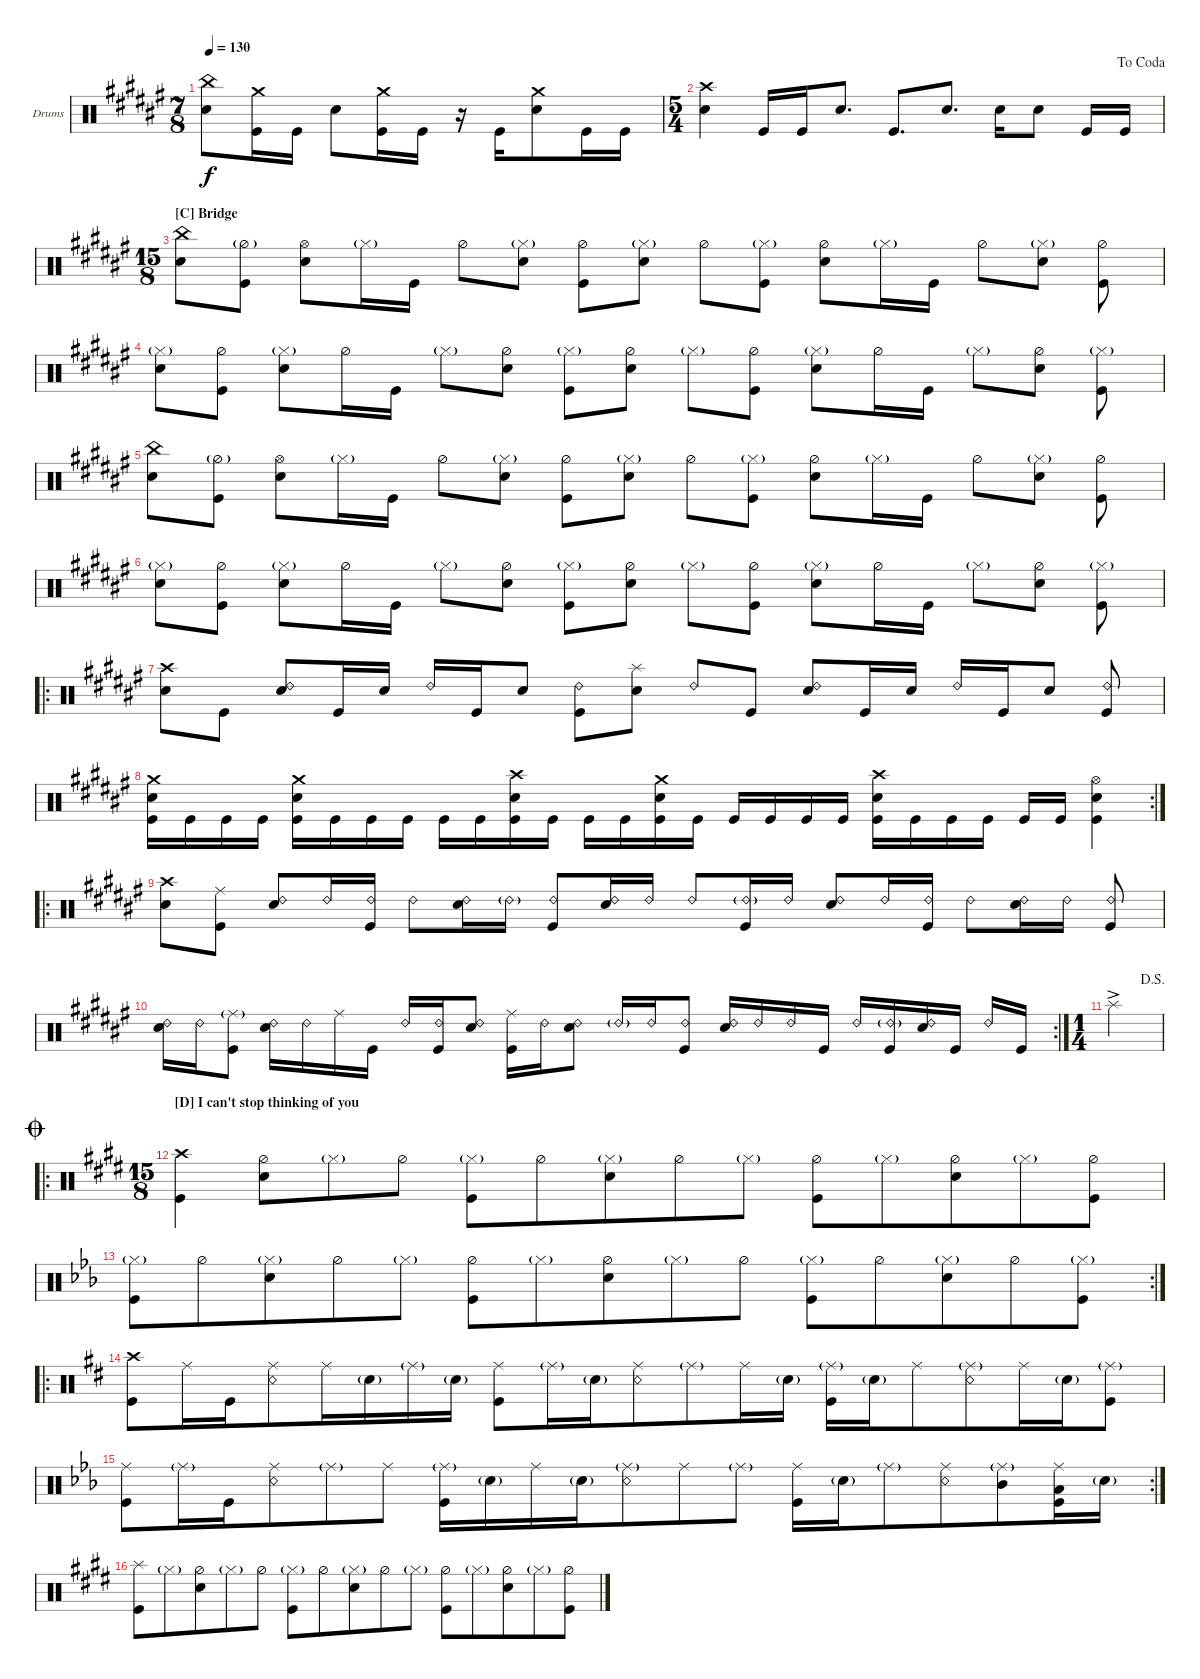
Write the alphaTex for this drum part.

\bracketExtendMode groupsimilarinstruments
\firstSystemTrackNameOrientation horizontal
\otherSystemsTrackNameOrientation horizontal
\track ("Drumkit" "Drums") {multiBarRest instrument percussion}
\staff {score}
\articulation defaults
\ts (7 8)
\beaming (8 2 2 3)
\tempo 130
\clef neutral
\ks d#minor
("Snare (hit) 2" "China (hit)").8{dy f} ("Kick (hit)" "Crash medium (hit)").16 "Kick (hit)".16 "Snare (hit) 2".8 ("Kick (hit)" "Crash medium (hit)").16 "Kick (hit)".16 r.16 "Kick (hit)".16 ("Snare (hit) 2" "Crash medium (hit)").8 "Kick (hit)".16 "Kick (hit)".16 |
\ts (5 4)
\jump dacoda
("Snare (hit) 2" "Crash high (hit)").4 "Kick (hit)".16 "Kick (hit)".16 "Snare (hit) 2".8{d} "Kick (hit)".8{d} "Snare (hit) 2".8{d} "Snare (hit) 2".16 "Snare (hit) 2".8 "Kick (hit)".16 "Kick (hit)".16 |
\ts (15 8)
\beaming (8 2 2 2 2 2 2 2 1)
\section ("C" "Bridge")
("China (hit)" "Snare (hit) 2").8 ("Kick (hit)" "Hi-Hat (half)"{g}).8 ("Snare (hit) 2" "Hi-Hat (open)").8 "Hi-Hat (closed)"{g}.16 "Kick (hit)".16 "Hi-Hat (half)".8 ("Snare (hit) 2" "Hi-Hat (closed)"{g}).8 ("Kick (hit)" "Hi-Hat (half)").8 ("Snare (hit) 2" "Hi-Hat (closed)"{g}).8 "Hi-Hat (half)".8 ("Kick (hit)" "Hi-Hat (closed)"{g}).8 ("Snare (hit) 2" "Hi-Hat (half)").8 "Hi-Hat (closed)"{g}.16 "Kick (hit)".16 "Hi-Hat (half)".8 ("Snare (hit) 2" "Hi-Hat (closed)"{g}).8 ("Kick (hit)" "Hi-Hat (half)").8 |
("Snare (hit) 2" "Hi-Hat (closed)"{g}).8 ("Kick (hit)" "Hi-Hat (half)").8 ("Snare (hit) 2" "Hi-Hat (closed)"{g}).8 "Hi-Hat (half)".16 "Kick (hit)".16 "Hi-Hat (closed)"{g}.8 ("Snare (hit) 2" "Hi-Hat (half)").8 ("Kick (hit)" "Hi-Hat (closed)"{g}).8 ("Snare (hit) 2" "Hi-Hat (half)").8 "Hi-Hat (closed)"{g}.8 ("Kick (hit)" "Hi-Hat (half)").8 ("Snare (hit) 2" "Hi-Hat (closed)"{g}).8 "Hi-Hat (half)".16 "Kick (hit)".16 "Hi-Hat (closed)"{g}.8 ("Snare (hit) 2" "Hi-Hat (half)").8 ("Kick (hit)" "Hi-Hat (closed)"{g}).8 |
("China (hit)" "Snare (hit) 2").8 ("Kick (hit)" "Hi-Hat (half)"{g}).8 ("Snare (hit) 2" "Hi-Hat (open)").8 "Hi-Hat (closed)"{g}.16 "Kick (hit)".16 "Hi-Hat (half)".8 ("Snare (hit) 2" "Hi-Hat (closed)"{g}).8 ("Kick (hit)" "Hi-Hat (half)").8 ("Snare (hit) 2" "Hi-Hat (closed)"{g}).8 "Hi-Hat (half)".8 ("Kick (hit)" "Hi-Hat (closed)"{g}).8 ("Snare (hit) 2" "Hi-Hat (half)").8 "Hi-Hat (closed)"{g}.16 "Kick (hit)".16 "Hi-Hat (half)".8 ("Snare (hit) 2" "Hi-Hat (closed)"{g}).8 ("Kick (hit)" "Hi-Hat (half)").8 |
("Snare (hit) 2" "Hi-Hat (closed)"{g}).8 ("Kick (hit)" "Hi-Hat (half)").8 ("Snare (hit) 2" "Hi-Hat (closed)"{g}).8 "Hi-Hat (half)".16 "Kick (hit)".16 "Hi-Hat (closed)"{g}.8 ("Snare (hit) 2" "Hi-Hat (half)").8 ("Kick (hit)" "Hi-Hat (closed)"{g}).8 ("Snare (hit) 2" "Hi-Hat (half)").8 "Hi-Hat (closed)"{g}.8 ("Kick (hit)" "Hi-Hat (half)").8 ("Snare (hit) 2" "Hi-Hat (closed)"{g}).8 "Hi-Hat (half)".16 "Kick (hit)".16 "Hi-Hat (closed)"{g}.8 ("Snare (hit) 2" "Hi-Hat (half)").8 ("Kick (hit)" "Hi-Hat (closed)"{g}).8 |
\ro
("Snare (hit) 2" "Crash high (hit)").8 "Kick (hit)".8 ("Snare (hit) 2" "Ride (bell) 2").8 "Kick (hit)".16 "Snare (hit) 2".16 "Ride (bell) 2".16 "Kick (hit)".16 "Snare (hit) 2".8 ("Kick (hit)" "Ride (bell) 2").8 ("Snare (hit) 2" "Splash (hit)").8 "Ride (bell) 2".8 "Kick (hit)".8 ("Snare (hit) 2" "Ride (bell) 2").8 "Kick (hit)".16 "Snare (hit) 2".16 "Ride (bell) 2".16 "Kick (hit)".16 "Snare (hit) 2".8 ("Kick (hit)" "Ride (bell) 2").8 |
\rc 2
("Kick (hit)" "Snare (hit) 2" "Crash medium (hit)").16 "Kick (hit)".16 "Kick (hit)".16 "Kick (hit)".16 ("Kick (hit)" "Snare (hit) 2" "Crash medium (hit)").16 "Kick (hit)".16 "Kick (hit)".16 "Kick (hit)".16 "Kick (hit)".16 "Kick (hit)".16 ("Kick (hit)" "Snare (hit) 2" "Crash high (hit)").16 "Kick (hit)".16 "Kick (hit)".16 "Kick (hit)".16 ("Kick (hit)" "Snare (hit) 2" "Crash medium (hit)").16 "Kick (hit)".16 "Kick (hit)".16 "Kick (hit)".16 "Kick (hit)".16 "Kick (hit)".16 ("Kick (hit)" "Snare (hit) 2" "Crash high (hit)").16 "Kick (hit)".16 "Kick (hit)".16 "Kick (hit)".16 "Kick (hit)".16 "Kick (hit)".16 ("Kick (hit)" "Snare (hit) 2" "Hi-Hat (open)").4 |
\ro
("Crash high (hit)" "Snare (hit) 2").8 ("Ride (middle)" "Kick (hit)").8 ("Ride (bell) 2" "Snare (hit) 2").8 "Ride (bell) 2".16 ("Ride (bell) 2" "Kick (hit)").16 "Ride (bell) 2".8 ("Ride (bell) 2" "Snare (hit) 2").16 "Ride (bell) 2"{g}.16 ("Ride (bell) 2" "Kick (hit)").8 ("Ride (bell) 2" "Snare (hit) 2").16 "Ride (bell) 2".16 "Ride (bell) 2".8 ("Ride (bell) 2"{g} "Kick (hit)").16 "Ride (bell) 2".16 ("Ride (bell) 2" "Snare (hit) 2").8 "Ride (bell) 2".16 ("Ride (bell) 2" "Kick (hit)").16 "Ride (bell) 2".8 ("Ride (bell) 2" "Snare (hit) 2").16 "Ride (bell) 2".16 ("Ride (bell) 2" "Kick (hit)").8 |
\rc 2
("Ride (bell) 2" "Snare (hit) 2").16 "Ride (bell) 2".16 ("Ride (middle)"{g} "Kick (hit)").8 ("Ride (bell) 2" "Snare (hit) 2").16 "Ride (bell) 2".16 "Ride (middle)".16 "Kick (hit)".16 "Ride (bell) 2".16 ("Ride (bell) 2" "Kick (hit)").16 ("Ride (bell) 2" "Snare (hit) 2").8 ("Ride (middle)" "Kick (hit)").16 "Ride (bell) 2".16 ("Ride (bell) 2" "Snare (hit) 2").8 "Ride (bell) 2"{g}.16 "Ride (bell) 2".16 ("Ride (bell) 2" "Kick (hit)").8 ("Ride (bell) 2" "Snare (hit) 2").16 "Ride (bell) 2".16 "Ride (bell) 2".16 "Kick (hit)".16 "Ride (bell) 2".16 ("Ride (bell) 2"{g} "Kick (hit)").16 ("Ride (bell) 2" "Snare (hit) 2").16 "Kick (hit)".16 "Ride (bell) 2".16 "Kick (hit)".16 |
\ts (1 4)
\jump dalsegno "Splash (hit)"{ac}.4
|
\ro
\ts (15 8)
\beaming (8 5 5 5)
\section ("D" "I can't stop thinking of you")
\jump coda
\ks e
("Crash high (hit)" "Kick (hit)").4 ("Hi-Hat (half)" "Snare (hit) 2").8 "Hi-Hat (closed)"{g}.8 "Hi-Hat (half)".8 ("Hi-Hat (closed)"{g} "Kick (hit)").8 "Hi-Hat (half)".8 ("Hi-Hat (closed)"{g} "Snare (hit) 2").8 "Hi-Hat (half)".8 "Hi-Hat (closed)"{g}.8 ("Hi-Hat (half)" "Kick (hit)").8 "Hi-Hat (closed)"{g}.8 ("Hi-Hat (half)" "Snare (hit) 2").8 "Hi-Hat (closed)"{g}.8 ("Hi-Hat (half)" "Kick (hit)").8 |
\rc 2
\ks eb
("Hi-Hat (closed)"{g} "Kick (hit)").8 "Hi-Hat (half)".8 ("Hi-Hat (closed)"{g} "Snare (hit) 2").8 "Hi-Hat (half)".8 "Hi-Hat (closed)"{g}.8 ("Hi-Hat (half)" "Kick (hit)").8 "Hi-Hat (closed)"{g}.8 ("Hi-Hat (half)" "Snare (hit) 2").8 "Hi-Hat (closed)"{g}.8 "Hi-Hat (half)".8 ("Hi-Hat (closed)"{g} "Kick (hit)").8 "Hi-Hat (half)".8 ("Hi-Hat (closed)"{g} "Snare (hit) 2").8 "Hi-Hat (half)".8 ("Hi-Hat (closed)"{g} "Kick (hit)").8 |
\ro
\ks bminor
("Crash high (hit)" "Kick (hit)").8 "Ride (middle)".16 "Kick (hit)".16 ("Ride (middle)" "Snare (rim shot)").8 "Ride (middle)".16 "Snare (hit) 2"{g}.16 "Ride (middle)"{g}.16 "Snare (hit) 2"{g}.16 ("Ride (middle)" "Kick (hit)").8 "Ride (middle)"{g}.16 "Snare (hit) 2"{g}.16 ("Ride (middle)" "Snare (rim shot)").8 "Ride (middle)"{g}.8 "Ride (middle)".16 "Snare (hit) 2"{g}.16 ("Ride (middle)"{g} "Kick (hit)").16 "Snare (hit) 2"{g}.16 "Ride (middle)".8 ("Ride (middle)"{g} "Snare (rim shot)").8 "Ride (middle)".16 "Snare (hit) 2"{g}.16 ("Ride (middle)"{g} "Kick (hit)").8 |
\rc 2
\ks eb
("Kick (hit)" "Ride (middle)").8 "Ride (middle)"{g}.16 "Kick (hit)".16 ("Ride (middle)" "Snare (rim shot)").8 "Ride (middle)"{g}.8 "Ride (middle)".8 ("Ride (middle)"{g} "Kick (hit)").16 "Snare (hit) 2"{g}.16 "Ride (middle)".16 "Snare (hit) 2"{g}.16 ("Ride (middle)"{g} "Snare (rim shot)").8 "Ride (middle)".8 "Ride (middle)"{g}.8 ("Ride (middle)" "Kick (hit)").16 "Snare (hit) 2"{g}.16 "Ride (middle)"{g}.8 ("Ride (middle)" "Snare (rim shot)").8 ("Ride (middle)"{g} "Mid Tom (hit)").8 ("Ride (middle)" "Kick (hit)" "Low Tom (hit)").16 "Snare (hit) 2"{g}.16 |
\ks e
("Kick (hit)" "Splash (hit)").8 "Hi-Hat (closed)"{g}.8 ("Hi-Hat (half)" "Snare (hit) 2").8 "Hi-Hat (closed)"{g}.8 "Hi-Hat (half)".8 ("Hi-Hat (closed)"{g} "Kick (hit)").8 "Hi-Hat (half)".8 ("Hi-Hat (closed)"{g} "Snare (hit) 2").8 "Hi-Hat (half)".8 "Hi-Hat (closed)"{g}.8 ("Hi-Hat (half)" "Kick (hit)").8 "Hi-Hat (closed)"{g}.8 ("Hi-Hat (half)" "Snare (hit) 2").8 "Hi-Hat (closed)"{g}.8 ("Hi-Hat (half)" "Kick (hit)").8
